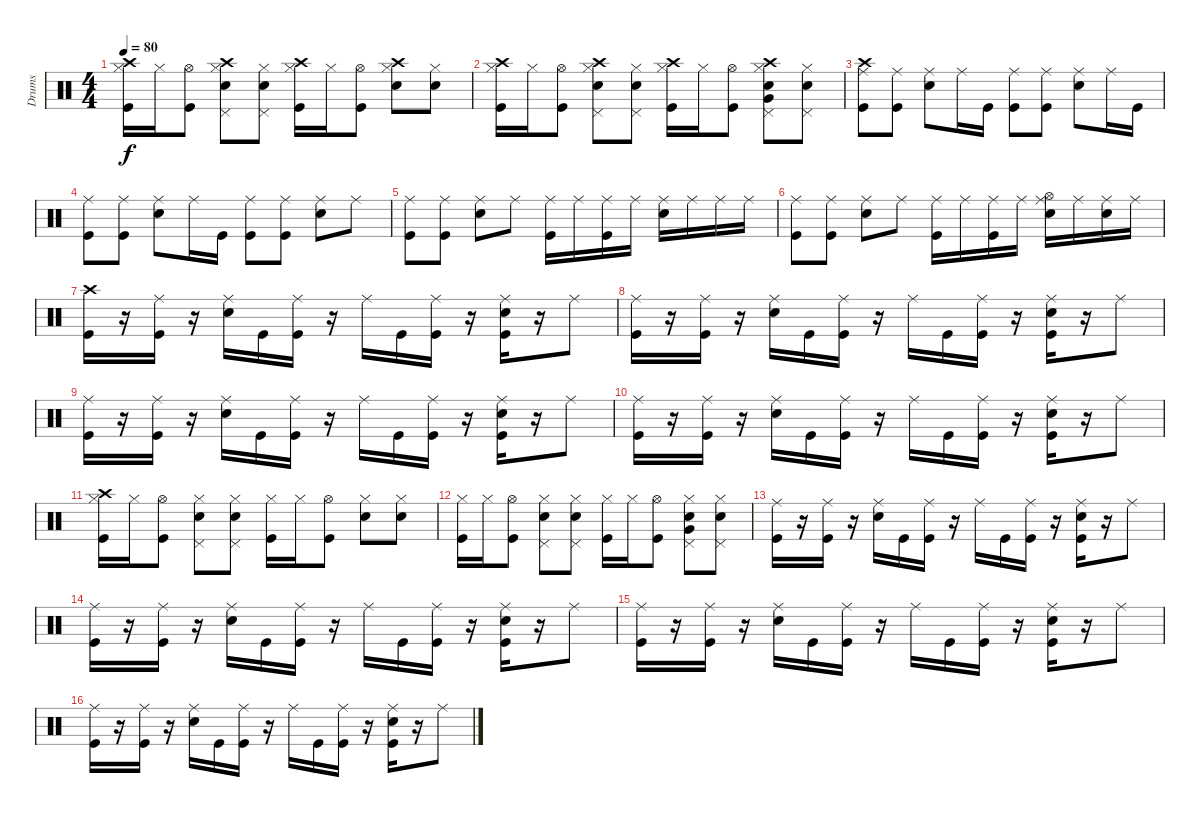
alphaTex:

\track ("Drums" "Drums") {instrument percussion}
\staff {score}
\articulation defaults
\ts (4 4)
\tempo 80
\clef neutral
\ks c
("Hi-Hat (closed)" "Crash high (hit)" "Kick (hit)").16{dy f} "Hi-Hat (closed)".16 ("Hi-Hat (open)" "Kick (hit)").8 ("Snare (hit) 2" "Pedal Hi-Hat (hit)" "Hi-Hat (closed)" "Crash high (hit)").8 ("Snare (hit) 2" "Pedal Hi-Hat (hit)" "Hi-Hat (closed)").8 ("Hi-Hat (closed)" "Crash high (hit)" "Kick (hit)").16 "Hi-Hat (closed)".16 ("Hi-Hat (open)" "Kick (hit)").8 ("Snare (hit) 2" "Hi-Hat (closed)" "Crash high (hit)").8 ("Snare (hit) 2" "Hi-Hat (closed)").8 |
("Hi-Hat (closed)" "Crash high (hit)" "Kick (hit)").16 "Hi-Hat (closed)".16 ("Hi-Hat (open)" "Kick (hit)").8 ("Snare (hit) 2" "Pedal Hi-Hat (hit)" "Hi-Hat (closed)" "Crash high (hit)").8 ("Snare (hit) 2" "Pedal Hi-Hat (hit)" "Hi-Hat (closed)").8 ("Hi-Hat (closed)" "Crash high (hit)" "Kick (hit)").16 "Hi-Hat (closed)".16 ("Hi-Hat (open)" "Kick (hit)").8 ("Snare (hit) 2" "Pedal Hi-Hat (hit)" "Very Low Tom (hit)" "Hi-Hat (closed)" "Crash high (hit)").8 ("Snare (hit) 2" "Pedal Hi-Hat (hit)" "Hi-Hat (closed)").8 |
("Kick (hit)" "Ride (middle)" "Crash high (hit)").8 ("Ride (middle)" "Kick (hit)").8 ("Ride (middle)" "Snare (hit) 2").8 "Ride (middle)".16 "Kick (hit)".16 ("Ride (middle)" "Kick (hit)").8 ("Ride (middle)" "Kick (hit)").8 ("Ride (middle)" "Snare (hit) 2").8 "Ride (middle)".16 "Kick (hit)".16 |
("Kick (hit)" "Ride (middle)").8 ("Ride (middle)" "Kick (hit)").8 ("Ride (middle)" "Snare (hit) 2").8 "Ride (middle)".16 "Kick (hit)".16 ("Ride (middle)" "Kick (hit)").8 ("Ride (middle)" "Kick (hit)").8 ("Ride (middle)" "Snare (hit) 2").8 "Ride (middle)".8 |
("Kick (hit)" "Ride (middle)").8 ("Ride (middle)" "Kick (hit)").8 ("Ride (middle)" "Snare (hit) 2").8 "Ride (middle)".8 ("Ride (middle)" "Kick (hit)").16 "Ride (middle)".16 ("Ride (middle)" "Kick (hit)").16 "Ride (middle)".16 ("Ride (middle)" "Snare (hit) 2").16 "Ride (middle)".16 "Ride (middle)".16 "Ride (middle)".16 |
("Kick (hit)" "Ride (middle)").8 ("Ride (middle)" "Kick (hit)").8 ("Ride (middle)" "Snare (hit) 2").8 "Ride (middle)".8 ("Ride (middle)" "Kick (hit)").16 "Ride (middle)".16 ("Ride (middle)" "Kick (hit)").16 "Ride (middle)".16 ("Ride (middle)" "Snare (hit) 2" "Hi-Hat (open)").16 "Ride (middle)".16 ("Ride (middle)" "Snare (hit) 2").16 "Ride (middle)".16 |
("Crash high (hit)" "Kick (hit)").16 r.16 ("Ride (middle)" "Kick (hit)").16 r.16 ("Ride (middle)" "Snare (hit) 2").16 "Kick (hit)".16 ("Ride (middle)" "Kick (hit)").16 r.16 "Ride (middle)".16 "Kick (hit)".16 ("Ride (middle)" "Kick (hit)").16 r.16 ("Ride (middle)" "Snare (hit) 2" "Kick (hit)").16 r.16 "Ride (middle)".8 |
("Ride (middle)" "Kick (hit)").16 r.16 ("Ride (middle)" "Kick (hit)").16 r.16 ("Ride (middle)" "Snare (hit) 2").16 "Kick (hit)".16 ("Ride (middle)" "Kick (hit)").16 r.16 "Ride (middle)".16 "Kick (hit)".16 ("Ride (middle)" "Kick (hit)").16 r.16 ("Ride (middle)" "Snare (hit) 2" "Kick (hit)").16 r.16 "Ride (middle)".8 |
("Ride (middle)" "Kick (hit)").16 r.16 ("Ride (middle)" "Kick (hit)").16 r.16 ("Ride (middle)" "Snare (hit) 2").16 "Kick (hit)".16 ("Ride (middle)" "Kick (hit)").16 r.16 "Ride (middle)".16 "Kick (hit)".16 ("Ride (middle)" "Kick (hit)").16 r.16 ("Ride (middle)" "Snare (hit) 2" "Kick (hit)").16 r.16 "Ride (middle)".8 |
("Ride (middle)" "Kick (hit)").16 r.16 ("Ride (middle)" "Kick (hit)").16 r.16 ("Ride (middle)" "Snare (hit) 2").16 "Kick (hit)".16 ("Ride (middle)" "Kick (hit)").16 r.16 "Ride (middle)".16 "Kick (hit)".16 ("Ride (middle)" "Kick (hit)").16 r.16 ("Ride (middle)" "Snare (hit) 2" "Kick (hit)").16 r.16 "Ride (middle)".8 |
("Hi-Hat (closed)" "Crash high (hit)" "Kick (hit)").16 "Hi-Hat (closed)".16 ("Hi-Hat (open)" "Kick (hit)").8 ("Snare (hit) 2" "Pedal Hi-Hat (hit)" "Hi-Hat (closed)").8 ("Snare (hit) 2" "Pedal Hi-Hat (hit)" "Hi-Hat (closed)").8 ("Hi-Hat (closed)" "Kick (hit)").16 "Hi-Hat (closed)".16 ("Hi-Hat (open)" "Kick (hit)").8 ("Snare (hit) 2" "Hi-Hat (closed)").8 ("Snare (hit) 2" "Hi-Hat (closed)").8 |
("Hi-Hat (closed)" "Kick (hit)").16 "Hi-Hat (closed)".16 ("Hi-Hat (open)" "Kick (hit)").8 ("Snare (hit) 2" "Pedal Hi-Hat (hit)" "Hi-Hat (closed)").8 ("Snare (hit) 2" "Pedal Hi-Hat (hit)" "Hi-Hat (closed)").8 ("Hi-Hat (closed)" "Kick (hit)").16 "Hi-Hat (closed)".16 ("Hi-Hat (open)" "Kick (hit)").8 ("Snare (hit) 2" "Pedal Hi-Hat (hit)" "Very Low Tom (hit)" "Hi-Hat (closed)").8 ("Snare (hit) 2" "Pedal Hi-Hat (hit)" "Hi-Hat (closed)").8 |
("Ride (middle)" "Kick (hit)").16 r.16 ("Ride (middle)" "Kick (hit)").16 r.16 ("Ride (middle)" "Snare (hit) 2").16 "Kick (hit)".16 ("Ride (middle)" "Kick (hit)").16 r.16 "Ride (middle)".16 "Kick (hit)".16 ("Ride (middle)" "Kick (hit)").16 r.16 ("Ride (middle)" "Snare (hit) 2" "Kick (hit)").16 r.16 "Ride (middle)".8 |
("Ride (middle)" "Kick (hit)").16 r.16 ("Ride (middle)" "Kick (hit)").16 r.16 ("Ride (middle)" "Snare (hit) 2").16 "Kick (hit)".16 ("Ride (middle)" "Kick (hit)").16 r.16 "Ride (middle)".16 "Kick (hit)".16 ("Ride (middle)" "Kick (hit)").16 r.16 ("Ride (middle)" "Snare (hit) 2" "Kick (hit)").16 r.16 "Ride (middle)".8 |
("Ride (middle)" "Kick (hit)").16 r.16 ("Ride (middle)" "Kick (hit)").16 r.16 ("Ride (middle)" "Snare (hit) 2").16 "Kick (hit)".16 ("Ride (middle)" "Kick (hit)").16 r.16 "Ride (middle)".16 "Kick (hit)".16 ("Ride (middle)" "Kick (hit)").16 r.16 ("Ride (middle)" "Snare (hit) 2" "Kick (hit)").16 r.16 "Ride (middle)".8 |
("Ride (middle)" "Kick (hit)").16 r.16 ("Ride (middle)" "Kick (hit)").16 r.16 ("Ride (middle)" "Snare (hit) 2").16 "Kick (hit)".16 ("Ride (middle)" "Kick (hit)").16 r.16 "Ride (middle)".16 "Kick (hit)".16 ("Ride (middle)" "Kick (hit)").16 r.16 ("Ride (middle)" "Snare (hit) 2" "Kick (hit)").16 r.16 "Ride (middle)".8
